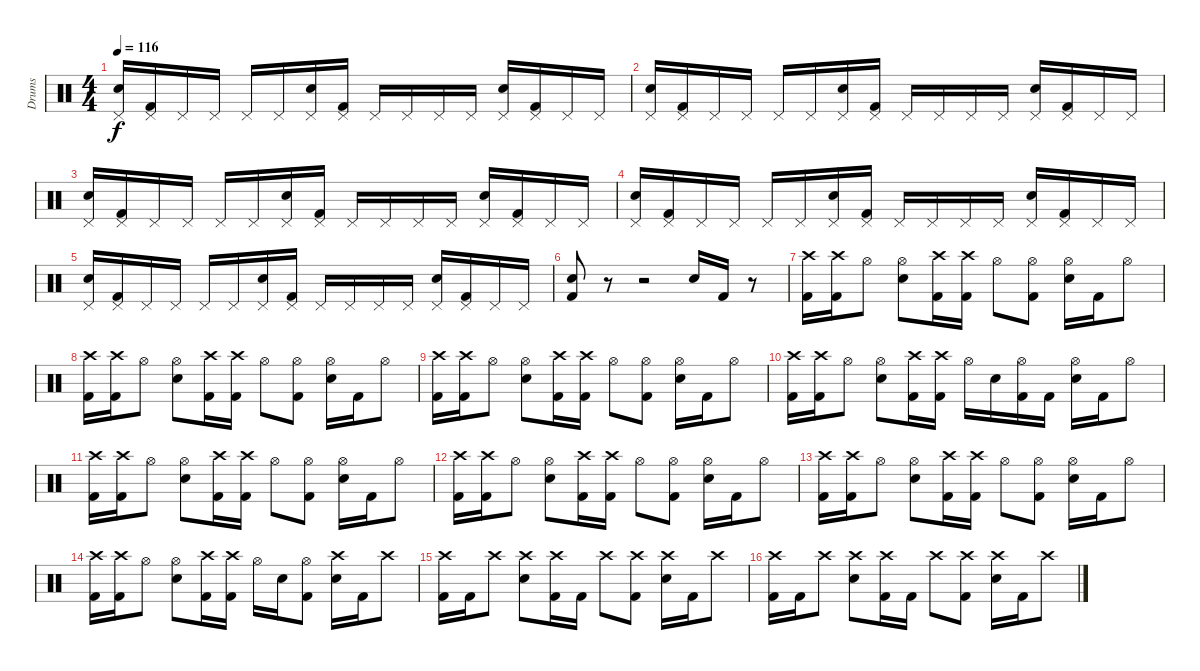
\track ("Drums" "Drums") {instrument percussion}
\staff {score}
\articulation defaults
\ts (4 4)
\tempo 116
\clef neutral
\ks c
("Pedal Hi-Hat (hit)" "Electric Snare (hit)").16{dy f} ("Pedal Hi-Hat (hit)" "Kick (hit) 2").16 "Pedal Hi-Hat (hit)".16 "Pedal Hi-Hat (hit)".16 "Pedal Hi-Hat (hit)".16 "Pedal Hi-Hat (hit)".16 ("Pedal Hi-Hat (hit)" "Electric Snare (hit)").16 ("Pedal Hi-Hat (hit)" "Kick (hit) 2").16 "Pedal Hi-Hat (hit)".16 "Pedal Hi-Hat (hit)".16 "Pedal Hi-Hat (hit)".16 "Pedal Hi-Hat (hit)".16 ("Pedal Hi-Hat (hit)" "Electric Snare (hit)").16 ("Pedal Hi-Hat (hit)" "Kick (hit) 2").16 "Pedal Hi-Hat (hit)".16 "Pedal Hi-Hat (hit)".16 |
("Pedal Hi-Hat (hit)" "Electric Snare (hit)").16 ("Pedal Hi-Hat (hit)" "Kick (hit) 2").16 "Pedal Hi-Hat (hit)".16 "Pedal Hi-Hat (hit)".16 "Pedal Hi-Hat (hit)".16 "Pedal Hi-Hat (hit)".16 ("Pedal Hi-Hat (hit)" "Electric Snare (hit)").16 ("Pedal Hi-Hat (hit)" "Kick (hit) 2").16 "Pedal Hi-Hat (hit)".16 "Pedal Hi-Hat (hit)".16 "Pedal Hi-Hat (hit)".16 "Pedal Hi-Hat (hit)".16 ("Pedal Hi-Hat (hit)" "Electric Snare (hit)").16 ("Pedal Hi-Hat (hit)" "Kick (hit) 2").16 "Pedal Hi-Hat (hit)".16 "Pedal Hi-Hat (hit)".16 |
("Pedal Hi-Hat (hit)" "Electric Snare (hit)").16 ("Pedal Hi-Hat (hit)" "Kick (hit) 2").16 "Pedal Hi-Hat (hit)".16 "Pedal Hi-Hat (hit)".16 "Pedal Hi-Hat (hit)".16 "Pedal Hi-Hat (hit)".16 ("Pedal Hi-Hat (hit)" "Electric Snare (hit)").16 ("Pedal Hi-Hat (hit)" "Kick (hit) 2").16 "Pedal Hi-Hat (hit)".16 "Pedal Hi-Hat (hit)".16 "Pedal Hi-Hat (hit)".16 "Pedal Hi-Hat (hit)".16 ("Pedal Hi-Hat (hit)" "Electric Snare (hit)").16 ("Pedal Hi-Hat (hit)" "Kick (hit) 2").16 "Pedal Hi-Hat (hit)".16 "Pedal Hi-Hat (hit)".16 |
("Pedal Hi-Hat (hit)" "Electric Snare (hit)").16 ("Pedal Hi-Hat (hit)" "Kick (hit) 2").16 "Pedal Hi-Hat (hit)".16 "Pedal Hi-Hat (hit)".16 "Pedal Hi-Hat (hit)".16 "Pedal Hi-Hat (hit)".16 ("Pedal Hi-Hat (hit)" "Electric Snare (hit)").16 ("Pedal Hi-Hat (hit)" "Kick (hit) 2").16 "Pedal Hi-Hat (hit)".16 "Pedal Hi-Hat (hit)".16 "Pedal Hi-Hat (hit)".16 "Pedal Hi-Hat (hit)".16 ("Pedal Hi-Hat (hit)" "Electric Snare (hit)").16 ("Pedal Hi-Hat (hit)" "Kick (hit) 2").16 "Pedal Hi-Hat (hit)".16 "Pedal Hi-Hat (hit)".16 |
("Pedal Hi-Hat (hit)" "Electric Snare (hit)").16 ("Pedal Hi-Hat (hit)" "Kick (hit) 2").16 "Pedal Hi-Hat (hit)".16 "Pedal Hi-Hat (hit)".16 "Pedal Hi-Hat (hit)".16 "Pedal Hi-Hat (hit)".16 ("Pedal Hi-Hat (hit)" "Electric Snare (hit)").16 ("Pedal Hi-Hat (hit)" "Kick (hit) 2").16 "Pedal Hi-Hat (hit)".16 "Pedal Hi-Hat (hit)".16 "Pedal Hi-Hat (hit)".16 "Pedal Hi-Hat (hit)".16 ("Pedal Hi-Hat (hit)" "Electric Snare (hit)").16 ("Pedal Hi-Hat (hit)" "Kick (hit) 2").16 "Pedal Hi-Hat (hit)".16 "Pedal Hi-Hat (hit)".16 |
("Electric Snare (hit)" "Kick (hit) 2").8 r.8 r.2 "Electric Snare (hit)".16 "Kick (hit) 2".16 r.8 |
("Crash high (hit)" "Kick (hit) 2").16 ("Crash high (hit)" "Kick (hit) 2").16 "Hi-Hat (open)".8 ("Hi-Hat (open)" "Electric Snare (hit)").8 ("Crash high (hit)" "Kick (hit) 2").16 ("Crash high (hit)" "Kick (hit) 2").16 "Hi-Hat (open)".8 ("Hi-Hat (open)" "Kick (hit) 2").8 ("Hi-Hat (open)" "Electric Snare (hit)").16 "Kick (hit) 2".16 "Hi-Hat (open)".8 |
("Crash high (hit)" "Kick (hit) 2").16 ("Crash high (hit)" "Kick (hit) 2").16 "Hi-Hat (open)".8 ("Hi-Hat (open)" "Electric Snare (hit)").8 ("Crash high (hit)" "Kick (hit) 2").16 ("Crash high (hit)" "Kick (hit) 2").16 "Hi-Hat (open)".8 ("Hi-Hat (open)" "Kick (hit) 2").8 ("Hi-Hat (open)" "Electric Snare (hit)").16 "Kick (hit) 2".16 "Hi-Hat (open)".8 |
("Crash high (hit)" "Kick (hit) 2").16 ("Crash high (hit)" "Kick (hit) 2").16 "Hi-Hat (open)".8 ("Hi-Hat (open)" "Electric Snare (hit)").8 ("Crash high (hit)" "Kick (hit) 2").16 ("Crash high (hit)" "Kick (hit) 2").16 "Hi-Hat (open)".8 ("Hi-Hat (open)" "Kick (hit) 2").8 ("Hi-Hat (open)" "Electric Snare (hit)").16 "Kick (hit) 2".16 "Hi-Hat (open)".8 |
("Crash high (hit)" "Kick (hit) 2").16 ("Crash high (hit)" "Kick (hit) 2").16 "Hi-Hat (open)".8 ("Hi-Hat (open)" "Electric Snare (hit)").8 ("Crash high (hit)" "Kick (hit) 2").16 ("Crash high (hit)" "Kick (hit) 2").16 "Hi-Hat (open)".16 "Electric Snare (hit)".16 ("Hi-Hat (open)" "Kick (hit) 2").16 "Kick (hit) 2".16 ("Hi-Hat (open)" "Electric Snare (hit)").16 "Kick (hit) 2".16 "Hi-Hat (open)".8 |
("Crash high (hit)" "Kick (hit) 2").16 ("Crash high (hit)" "Kick (hit) 2").16 "Hi-Hat (open)".8 ("Hi-Hat (open)" "Electric Snare (hit)").8 ("Crash high (hit)" "Kick (hit) 2").16 ("Crash high (hit)" "Kick (hit) 2").16 "Hi-Hat (open)".8 ("Hi-Hat (open)" "Kick (hit) 2").8 ("Hi-Hat (open)" "Electric Snare (hit)").16 "Kick (hit) 2".16 "Hi-Hat (open)".8 |
("Crash high (hit)" "Kick (hit) 2").16 ("Crash high (hit)" "Kick (hit) 2").16 "Hi-Hat (open)".8 ("Hi-Hat (open)" "Electric Snare (hit)").8 ("Crash high (hit)" "Kick (hit) 2").16 ("Crash high (hit)" "Kick (hit) 2").16 "Hi-Hat (open)".8 ("Hi-Hat (open)" "Kick (hit) 2").8 ("Hi-Hat (open)" "Electric Snare (hit)").16 "Kick (hit) 2".16 "Hi-Hat (open)".8 |
("Crash high (hit)" "Kick (hit) 2").16 ("Crash high (hit)" "Kick (hit) 2").16 "Hi-Hat (open)".8 ("Hi-Hat (open)" "Electric Snare (hit)").8 ("Crash high (hit)" "Kick (hit) 2").16 ("Crash high (hit)" "Kick (hit) 2").16 "Hi-Hat (open)".8 ("Hi-Hat (open)" "Kick (hit) 2").8 ("Hi-Hat (open)" "Electric Snare (hit)").16 "Kick (hit) 2".16 "Hi-Hat (open)".8 |
("Crash high (hit)" "Kick (hit) 2").16 ("Crash high (hit)" "Kick (hit) 2").16 "Hi-Hat (open)".8 ("Hi-Hat (open)" "Electric Snare (hit)").8 ("Crash high (hit)" "Kick (hit) 2").16 ("Crash high (hit)" "Kick (hit) 2").16 "Hi-Hat (open)".16 "Electric Snare (hit)".16 ("Hi-Hat (open)" "Kick (hit) 2").8 ("Crash high (hit)" "Electric Snare (hit)").16 "Kick (hit) 2".16 "Crash high (hit)".8 |
("Crash high (hit)" "Kick (hit) 2").16 "Kick (hit) 2".16 "Crash high (hit)".8 ("Crash high (hit)" "Electric Snare (hit)").8 ("Crash high (hit)" "Kick (hit) 2").16 "Kick (hit) 2".16 "Crash high (hit)".8 ("Crash high (hit)" "Kick (hit) 2").8 ("Crash high (hit)" "Electric Snare (hit)").16 "Kick (hit) 2".16 "Crash high (hit)".8 |
("Crash high (hit)" "Kick (hit) 2").16 "Kick (hit) 2".16 "Crash high (hit)".8 ("Crash high (hit)" "Electric Snare (hit)").8 ("Crash high (hit)" "Kick (hit) 2").16 "Kick (hit) 2".16 "Crash high (hit)".8 ("Crash high (hit)" "Kick (hit) 2").8 ("Crash high (hit)" "Electric Snare (hit)").16 "Kick (hit) 2".16 "Crash high (hit)".8
